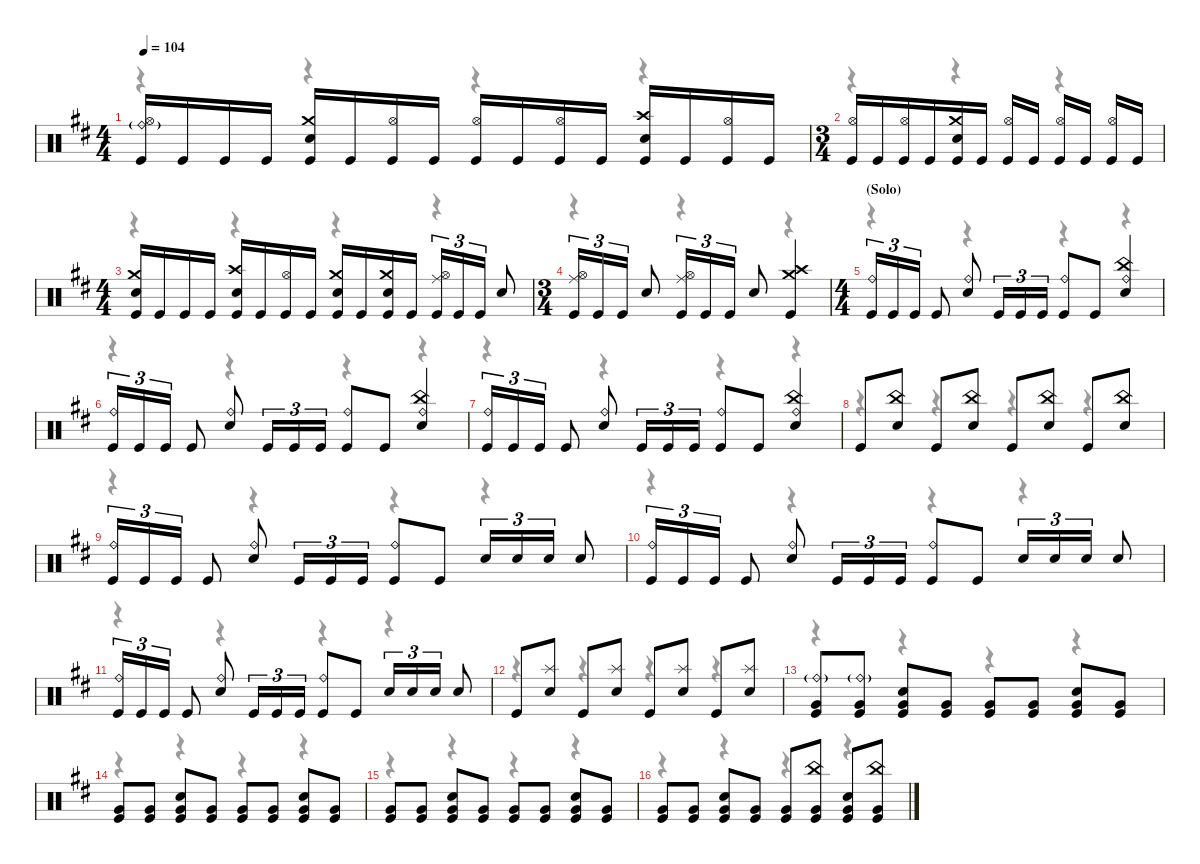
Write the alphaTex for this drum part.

\defaultSystemsLayout 4
\hideDynamics
\bracketExtendMode nobrackets
\singleTrackTrackNamePolicy hidden
\multiTrackTrackNamePolicy hidden
\firstSystemTrackNameMode fullname
\otherSystemsTrackNameOrientation horizontal
\track ("Drums" "drm.") {instrument percussion}
\staff {score}
\articulation defaults
\voice
\ts (4 4)
\tempo 104
\clef neutral
\ks bminor
("Ride (bell)"{g acc forcenatural} "Hi-Hat (open)"{acc forcenatural} "Kick (hit)"{acc forcenatural}).16{dy mp beam Up} "Kick (hit)"{acc forcenatural}.16{dy f beam Up} "Kick (hit)"{acc forcenatural}.16{beam Up} "Kick (hit)"{acc forcenatural}.16{beam Up} ("Crash medium (hit)"{acc forcenatural} "Snare (hit) 2"{acc forcenatural} "Kick (hit)"{acc forcenatural}).16{dy mp beam Up} "Kick (hit)"{acc forcenatural}.16{dy f beam Up} ("Hi-Hat (open)"{acc forcenatural} "Kick (hit)"{acc forcenatural}).16{dy pp beam Up} "Kick (hit)"{acc forcenatural}.16{dy f beam Up} ("Hi-Hat (open)"{acc forcenatural} "Kick (hit)"{acc forcenatural}).16{dy mp beam Up} "Kick (hit)"{acc forcenatural}.16{dy f beam Up} ("Hi-Hat (open)"{acc forcenatural} "Kick (hit)"{acc forcenatural}).16{dy pp beam Up} "Kick (hit)"{acc forcenatural}.16{dy f beam Up} ("Crash high (hit)"{acc forcenatural} "Snare (hit) 2"{acc forcenatural} "Kick (hit)"{acc forcenatural}).16{dy mp beam Up} "Kick (hit)"{acc forcenatural}.16{dy f beam Up} ("Hi-Hat (open)"{acc forcenatural} "Kick (hit)"{acc forcenatural}).16{dy pp beam Up} "Kick (hit)"{acc forcenatural}.16{dy f beam Up} |
\ts (3 4)
\beaming (8 3 1 1 1)
("Hi-Hat (open)"{acc forcenatural} "Kick (hit)"{acc forcenatural}).16{dy mp beam Up} "Kick (hit)"{acc forcenatural}.16{dy f beam Up} ("Hi-Hat (open)"{acc forcenatural} "Kick (hit)"{acc forcenatural}).16{dy pp beam Up} "Kick (hit)"{acc forcenatural}.16{dy f beam Up} ("Crash medium (hit)"{acc forcenatural} "Snare (hit) 2"{acc forcenatural} "Kick (hit)"{acc forcenatural}).16{dy mp beam Up} "Kick (hit)"{acc forcenatural}.16{dy f beam Up} ("Hi-Hat (open)"{acc forcenatural} "Kick (hit)"{acc forcenatural}).16{dy pp beam Up} "Kick (hit)"{acc forcenatural}.16{dy f beam Up} ("Hi-Hat (open)"{acc forcenatural} "Kick (hit)"{acc forcenatural}).16{dy mp beam Up} "Kick (hit)"{acc forcenatural}.16{dy f beam Up} ("Hi-Hat (open)"{acc forcenatural} "Kick (hit)"{acc forcenatural}).16{dy pp beam Up} "Kick (hit)"{acc forcenatural}.16{dy f beam Up} |
\ts (4 4)
\beaming (8 2 2 2 2)
("Crash medium (hit)"{acc forcenatural} "Snare (hit) 2"{acc forcenatural} "Kick (hit)"{acc forcenatural}).16{dy mp beam Up} "Kick (hit)"{acc forcenatural}.16{dy f beam Up} "Kick (hit)"{acc forcenatural}.16{beam Up} "Kick (hit)"{acc forcenatural}.16{beam Up} ("Crash high (hit)"{acc forcenatural} "Snare (hit) 2"{acc forcenatural} "Kick (hit)"{acc forcenatural}).16{dy mp beam Up} "Kick (hit)"{acc forcenatural}.16{dy f beam Up} ("Hi-Hat (open)"{acc forcenatural} "Kick (hit)"{acc forcenatural}).16{dy pp beam Up} "Kick (hit)"{acc forcenatural}.16{dy f beam Up} ("Crash medium (hit)"{acc forcenatural} "Snare (hit) 2"{acc forcenatural} "Kick (hit)"{acc forcenatural}).16{dy mp beam Up} "Kick (hit)"{acc forcenatural}.16{dy f beam Up} ("Crash medium (hit)"{acc forcenatural} "Snare (hit) 2"{acc forcenatural} "Kick (hit)"{acc forcenatural}).16{dy mp beam Up} "Kick (hit)"{acc forcenatural}.16{dy f beam Up} ("Ride (middle)"{acc forcenatural} "Hi-Hat (open)"{acc forcenatural} "Kick (hit)"{acc forcenatural}).16{tu (3 2) dy mf beam Up} "Kick (hit)"{acc forcenatural}.16{tu (3 2) dy f beam Up} "Kick (hit)"{acc forcenatural}.16{tu (3 2) beam Up} "Snare (hit) 2"{acc forcenatural}.8{beam Up} |
\ts (3 4)
\beaming (8 3 1 1 1)
("Ride (middle)"{acc forcenatural} "Hi-Hat (open)"{acc forcenatural} "Kick (hit)"{acc forcenatural}).16{tu (3 2) dy mf beam Up} "Kick (hit)"{acc forcenatural}.16{tu (3 2) dy f beam Up} "Kick (hit)"{acc forcenatural}.16{tu (3 2) beam Up} "Snare (hit) 2"{acc forcenatural}.8{beam Up} ("Ride (middle)"{acc forcenatural} "Hi-Hat (open)"{acc forcenatural} "Kick (hit)"{acc forcenatural}).16{tu (3 2) dy mf beam Up} "Kick (hit)"{acc forcenatural}.16{tu (3 2) dy f beam Up} "Kick (hit)"{acc forcenatural}.16{tu (3 2) beam Up} "Snare (hit) 2"{acc forcenatural}.8{beam Up} ("Crash high (hit)"{acc forcenatural} "Crash medium (hit)"{acc forcenatural} "Kick (hit)"{acc forcenatural}).4{dy mp beam Up} |
\ts (4 4)
\beaming (8 2 2 2 2)
\section ("" "(Solo)")
("Ride (bell)"{acc forcenatural} "Kick (hit)"{acc forcenatural}).16{tu (3 2) dy mf beam Up} "Kick (hit)"{acc forcenatural}.16{tu (3 2) dy f beam Up} "Kick (hit)"{acc forcenatural}.16{tu (3 2) beam Up} "Kick (hit)"{acc forcenatural}.8{beam Up} ("Ride (bell)"{acc forcenatural} "Snare (hit) 2"{acc forcenatural}).8{dy mf beam Up} "Kick (hit)"{acc forcenatural}.16{tu (3 2) dy f beam Up} "Kick (hit)"{acc forcenatural}.16{tu (3 2) beam Up} "Kick (hit)"{acc forcenatural}.16{tu (3 2) beam Up} ("Ride (bell)"{acc forcenatural} "Kick (hit)"{acc forcenatural}).8{dy mf beam Up} "Kick (hit)"{acc forcenatural}.8{dy f beam Up} ("Ride (bell)"{acc forcenatural} "China (hit)"{acc forcenatural} "Snare (hit) 2"{acc forcenatural}).4{dy mf beam Up} |
("Ride (bell)"{acc forcenatural} "Kick (hit)"{acc forcenatural}).16{tu (3 2) beam Up} "Kick (hit)"{acc forcenatural}.16{tu (3 2) dy f beam Up} "Kick (hit)"{acc forcenatural}.16{tu (3 2) beam Up} "Kick (hit)"{acc forcenatural}.8{beam Up} ("Ride (bell)"{acc forcenatural} "Snare (hit) 2"{acc forcenatural}).8{dy mf beam Up} "Kick (hit)"{acc forcenatural}.16{tu (3 2) dy f beam Up} "Kick (hit)"{acc forcenatural}.16{tu (3 2) beam Up} "Kick (hit)"{acc forcenatural}.16{tu (3 2) beam Up} ("Ride (bell)"{acc forcenatural} "Kick (hit)"{acc forcenatural}).8{dy mf beam Up} "Kick (hit)"{acc forcenatural}.8{dy f beam Up} ("Ride (bell)"{acc forcenatural} "China (hit)"{acc forcenatural} "Snare (hit) 2"{acc forcenatural}).4{dy mf beam Up} |
("Ride (bell)"{acc forcenatural} "Kick (hit)"{acc forcenatural}).16{tu (3 2) beam Up} "Kick (hit)"{acc forcenatural}.16{tu (3 2) dy f beam Up} "Kick (hit)"{acc forcenatural}.16{tu (3 2) beam Up} "Kick (hit)"{acc forcenatural}.8{beam Up} ("Ride (bell)"{acc forcenatural} "Snare (hit) 2"{acc forcenatural}).8{dy mf beam Up} "Kick (hit)"{acc forcenatural}.16{tu (3 2) dy f beam Up} "Kick (hit)"{acc forcenatural}.16{tu (3 2) beam Up} "Kick (hit)"{acc forcenatural}.16{tu (3 2) beam Up} ("Ride (bell)"{acc forcenatural} "Kick (hit)"{acc forcenatural}).8{dy mf beam Up} "Kick (hit)"{acc forcenatural}.8{dy f beam Up} ("Ride (bell)"{acc forcenatural} "China (hit)"{acc forcenatural} "Snare (hit) 2"{acc forcenatural}).4{dy mf beam Up} |
"Kick (hit)"{acc forcenatural}.8{dy f beam Up} ("China (hit)"{acc forcenatural} "Snare (hit) 2"{acc forcenatural}).8{beam Up} "Kick (hit)"{acc forcenatural}.8{beam Up} ("China (hit)"{acc forcenatural} "Snare (hit) 2"{acc forcenatural}).8{beam Up} "Kick (hit)"{acc forcenatural}.8{beam Up} ("China (hit)"{acc forcenatural} "Snare (hit) 2"{acc forcenatural}).8{beam Up} "Kick (hit)"{acc forcenatural}.8{beam Up} ("China (hit)"{acc forcenatural} "Snare (hit) 2"{acc forcenatural}).8{beam Up} |
("Ride (bell)"{acc forcenatural} "Kick (hit)"{acc forcenatural}).16{tu (3 2) dy mf beam Up} "Kick (hit)"{acc forcenatural}.16{tu (3 2) dy f beam Up} "Kick (hit)"{acc forcenatural}.16{tu (3 2) beam Up} "Kick (hit)"{acc forcenatural}.8{beam Up} ("Ride (bell)"{acc forcenatural} "Snare (hit) 2"{acc forcenatural}).8{dy mf beam Up} "Kick (hit)"{acc forcenatural}.16{tu (3 2) dy f beam Up} "Kick (hit)"{acc forcenatural}.16{tu (3 2) beam Up} "Kick (hit)"{acc forcenatural}.16{tu (3 2) beam Up} ("Ride (bell)"{acc forcenatural} "Kick (hit)"{acc forcenatural}).8{dy mf beam Up} "Kick (hit)"{acc forcenatural}.8{dy f beam Up} "Snare (hit) 2"{acc forcenatural}.16{tu (3 2) dy mf beam Up} "Snare (hit) 2"{acc forcenatural}.16{tu (3 2) beam Up} "Snare (hit) 2"{acc forcenatural}.16{tu (3 2) beam Up} "Snare (hit) 2"{acc forcenatural}.8{beam Up} |
("Ride (bell)"{acc forcenatural} "Kick (hit)"{acc forcenatural}).16{tu (3 2) beam Up} "Kick (hit)"{acc forcenatural}.16{tu (3 2) dy f beam Up} "Kick (hit)"{acc forcenatural}.16{tu (3 2) beam Up} "Kick (hit)"{acc forcenatural}.8{beam Up} ("Ride (bell)"{acc forcenatural} "Snare (hit) 2"{acc forcenatural}).8{dy mf beam Up} "Kick (hit)"{acc forcenatural}.16{tu (3 2) dy f beam Up} "Kick (hit)"{acc forcenatural}.16{tu (3 2) beam Up} "Kick (hit)"{acc forcenatural}.16{tu (3 2) beam Up} ("Ride (bell)"{acc forcenatural} "Kick (hit)"{acc forcenatural}).8{dy mf beam Up} "Kick (hit)"{acc forcenatural}.8{dy f beam Up} "Snare (hit) 2"{acc forcenatural}.16{tu (3 2) dy mf beam Up} "Snare (hit) 2"{acc forcenatural}.16{tu (3 2) beam Up} "Snare (hit) 2"{acc forcenatural}.16{tu (3 2) beam Up} "Snare (hit) 2"{acc forcenatural}.8{beam Up} |
("Ride (bell)"{acc forcenatural} "Kick (hit)"{acc forcenatural}).16{tu (3 2) beam Up} "Kick (hit)"{acc forcenatural}.16{tu (3 2) dy f beam Up} "Kick (hit)"{acc forcenatural}.16{tu (3 2) beam Up} "Kick (hit)"{acc forcenatural}.8{beam Up} ("Ride (bell)"{acc forcenatural} "Snare (hit) 2"{acc forcenatural}).8{dy mf beam Up} "Kick (hit)"{acc forcenatural}.16{tu (3 2) dy f beam Up} "Kick (hit)"{acc forcenatural}.16{tu (3 2) beam Up} "Kick (hit)"{acc forcenatural}.16{tu (3 2) beam Up} ("Ride (bell)"{acc forcenatural} "Kick (hit)"{acc forcenatural}).8{dy mf beam Up} "Kick (hit)"{acc forcenatural}.8{dy f beam Up} "Snare (hit) 2"{acc forcenatural}.16{tu (3 2) beam Up} "Snare (hit) 2"{acc forcenatural}.16{tu (3 2) beam Up} "Snare (hit) 2"{acc forcenatural}.16{tu (3 2) dy mf beam Up} "Snare (hit) 2"{acc forcenatural}.8{beam Up} |
"Kick (hit)"{acc forcenatural}.8{dy f beam Up} ("Splash (hit)"{acc forcenatural} "Snare (hit) 2"{acc forcenatural}).8{beam Up} "Kick (hit)"{acc forcenatural}.8{beam Up} ("Splash (hit)"{acc forcenatural} "Snare (hit) 2"{acc forcenatural}).8{beam Up} "Kick (hit)"{acc forcenatural}.8{beam Up} ("Splash (hit)"{acc forcenatural} "Snare (hit) 2"{acc forcenatural}).8{beam Up} "Kick (hit)"{acc forcenatural}.8{beam Up} ("Splash (hit)"{acc forcenatural} "Snare (hit) 2"{acc forcenatural}).8{beam Up} |
("Ride (bell)"{g acc forcenatural} "Very Low Tom (hit)"{acc forcenatural} "Kick (hit)"{acc forcenatural}).8{beam Up} ("Ride (bell)"{g acc forcenatural} "Very Low Tom (hit)"{acc forcenatural} "Kick (hit)"{acc forcenatural}).8{dy p beam Up} ("Snare (hit) 2"{acc forcenatural} "Very Low Tom (hit)"{acc forcenatural} "Kick (hit)"{acc forcenatural}).8{dy f beam Up} ("Very Low Tom (hit)"{acc forcenatural} "Kick (hit)"{acc forcenatural}).8{dy p beam Up} ("Very Low Tom (hit)"{acc forcenatural} "Kick (hit)"{acc forcenatural}).8{dy f beam Up} ("Very Low Tom (hit)"{acc forcenatural} "Kick (hit)"{acc forcenatural}).8{dy p beam Up} ("Snare (hit) 2"{acc forcenatural} "Very Low Tom (hit)"{acc forcenatural} "Kick (hit)"{acc forcenatural}).8{dy f beam Up} ("Very Low Tom (hit)"{acc forcenatural} "Kick (hit)"{acc forcenatural}).8{dy p beam Up} |
("Very Low Tom (hit)"{acc forcenatural} "Kick (hit)"{acc forcenatural}).8{dy f beam Up} ("Very Low Tom (hit)"{acc forcenatural} "Kick (hit)"{acc forcenatural}).8{dy p beam Up} ("Snare (hit) 2"{acc forcenatural} "Very Low Tom (hit)"{acc forcenatural} "Kick (hit)"{acc forcenatural}).8{dy f beam Up} ("Very Low Tom (hit)"{acc forcenatural} "Kick (hit)"{acc forcenatural}).8{dy p beam Up} ("Very Low Tom (hit)"{acc forcenatural} "Kick (hit)"{acc forcenatural}).8{dy f beam Up} ("Very Low Tom (hit)"{acc forcenatural} "Kick (hit)"{acc forcenatural}).8{dy p beam Up} ("Snare (hit) 2"{acc forcenatural} "Very Low Tom (hit)"{acc forcenatural} "Kick (hit)"{acc forcenatural}).8{dy f beam Up} ("Very Low Tom (hit)"{acc forcenatural} "Kick (hit)"{acc forcenatural}).8{dy p beam Up} |
("Very Low Tom (hit)"{acc forcenatural} "Kick (hit)"{acc forcenatural}).8{dy f beam Up} ("Very Low Tom (hit)"{acc forcenatural} "Kick (hit)"{acc forcenatural}).8{dy p beam Up} ("Snare (hit) 2"{acc forcenatural} "Very Low Tom (hit)"{acc forcenatural} "Kick (hit)"{acc forcenatural}).8{dy f beam Up} ("Very Low Tom (hit)"{acc forcenatural} "Kick (hit)"{acc forcenatural}).8{dy p beam Up} ("Very Low Tom (hit)"{acc forcenatural} "Kick (hit)"{acc forcenatural}).8{dy f beam Up} ("Very Low Tom (hit)"{acc forcenatural} "Kick (hit)"{acc forcenatural}).8{dy p beam Up} ("Snare (hit) 2"{acc forcenatural} "Very Low Tom (hit)"{acc forcenatural} "Kick (hit)"{acc forcenatural}).8{dy f beam Up} ("Very Low Tom (hit)"{acc forcenatural} "Kick (hit)"{acc forcenatural}).8{dy p beam Up} |
("Very Low Tom (hit)"{acc forcenatural} "Kick (hit)"{acc forcenatural}).8{dy f beam Up} ("Very Low Tom (hit)"{acc forcenatural} "Kick (hit)"{acc forcenatural}).8{dy p beam Up} ("Snare (hit) 2"{acc forcenatural} "Very Low Tom (hit)"{acc forcenatural} "Kick (hit)"{acc forcenatural}).8{dy f beam Up} ("Very Low Tom (hit)"{acc forcenatural} "Kick (hit)"{acc forcenatural}).8{dy p beam Up} ("Very Low Tom (hit)"{acc forcenatural} "Kick (hit)"{acc forcenatural}).8{dy f beam Up} ("China (hit)"{acc forcenatural} "Very Low Tom (hit)"{acc forcenatural} "Kick (hit)"{acc forcenatural}).8{dy mf beam Up} ("Snare (hit) 2"{acc forcenatural} "Very Low Tom (hit)"{acc forcenatural} "Kick (hit)"{acc forcenatural}).8{dy f beam Up} ("China (hit)"{acc forcenatural} "Very Low Tom (hit)"{acc forcenatural} "Kick (hit)"{acc forcenatural}).8{dy mf beam Up}
\voice
\clef neutral
\ottava regular
\simile none
\ks bminor
r.4{dy mf beam Down} r.4{beam Down} r.4{beam Down} r.4{beam Down} |
r.4{beam Down} r.4{beam Down} r.4{beam Down} |
r.4{beam Down} r.4{beam Down} r.4{beam Down} r.4{beam Down} |
r.4{beam Down} r.4{beam Down} r.4{beam Down} |
r.4{beam Down} r.4{beam Down} r.4{beam Down} r.4{beam Down} |
r.4{beam Down} r.4{beam Down} r.4{beam Down} r.4{beam Down} |
r.4{beam Down} r.4{beam Down} r.4{beam Down} r.4{beam Down} |
r.4{beam Down} r.4{beam Down} r.4{beam Down} r.4{beam Down} |
r.4{beam Down} r.4{beam Down} r.4{beam Down} r.4{beam Down} |
r.4{beam Down} r.4{beam Down} r.4{beam Down} r.4{beam Down} |
r.4{beam Down} r.4{beam Down} r.4{beam Down} r.4{beam Down} |
r.4{beam Down} r.4{beam Down} r.4{beam Down} r.4{beam Down} |
r.4{beam Down} r.4{beam Down} r.4{beam Down} r.4{beam Down} |
r.4{beam Down} r.4{beam Down} r.4{beam Down} r.4{beam Down} |
r.4{beam Down} r.4{beam Down} r.4{beam Down} r.4{beam Down} |
r.4{beam Down} r.4{beam Down} r.4{beam Down} r.4{beam Down}
